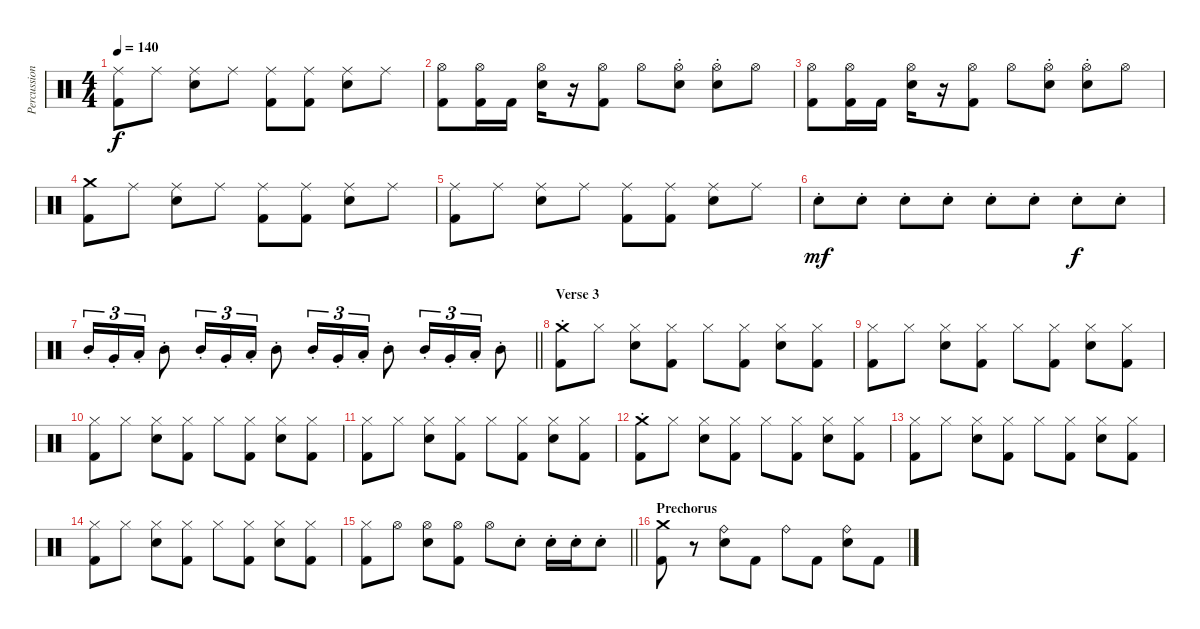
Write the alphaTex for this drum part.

\track ("Percussion" "Percussion") {instrument percussion}
\staff {score}
\articulation defaults
\ts (4 4)
\tempo 140
\clef neutral
\ks c
("Ride (middle)" "Kick (hit) 2").8{dy f} "Ride (middle)".8 ("Ride (middle)" "Snare (hit) 2").8 "Ride (middle)".8 ("Ride (middle)" "Kick (hit) 2").8 ("Ride (middle)" "Kick (hit) 2").8 ("Ride (middle)" "Snare (hit) 2").8 "Ride (middle)".8 |
("Hi-Hat (open)" "Kick (hit) 2").8 ("Hi-Hat (open)" "Kick (hit) 2").16 "Kick (hit) 2".16 ("Hi-Hat (open)" "Snare (hit) 2").16 r.16 ("Hi-Hat (open)" "Kick (hit) 2").8 "Hi-Hat (open)".8 ("Hi-Hat (open)" "Snare (hit) 2"{st}).8 ("Hi-Hat (open)" "Snare (hit) 2"{st}).8 "Hi-Hat (open)".8 |
("Hi-Hat (open)" "Kick (hit) 2").8 ("Hi-Hat (open)" "Kick (hit) 2").16 "Kick (hit) 2".16 ("Hi-Hat (open)" "Snare (hit) 2").16 r.16 ("Hi-Hat (open)" "Kick (hit) 2").8 "Hi-Hat (open)".8 ("Hi-Hat (open)" "Snare (hit) 2"{st}).8 ("Hi-Hat (open)" "Snare (hit) 2"{st}).8 "Hi-Hat (open)".8 |
("Crash medium (hit)" "Kick (hit) 2").8 "Ride (middle)".8 ("Ride (middle)" "Snare (hit) 2").8 "Ride (middle)".8 ("Ride (middle)" "Kick (hit) 2").8 ("Ride (middle)" "Kick (hit) 2").8 ("Ride (middle)" "Snare (hit) 2").8 "Ride (middle)".8 |
("Ride (middle)" "Kick (hit) 2").8 "Ride (middle)".8 ("Ride (middle)" "Snare (hit) 2").8 "Ride (middle)".8 ("Ride (middle)" "Kick (hit) 2").8 ("Ride (middle)" "Kick (hit) 2").8 ("Ride (middle)" "Snare (hit) 2").8 "Ride (middle)".8 |
"Snare (hit) 2"{st}.8{dy mf} "Snare (hit) 2"{st}.8 "Snare (hit) 2"{st}.8 "Snare (hit) 2"{st}.8 "Snare (hit) 2"{st}.8 "Snare (hit) 2"{st}.8 "Snare (hit) 2"{st}.8{dy f} "Snare (hit) 2"{st}.8 |
\barLineRight lightlight "Mid Tom (hit)"{st}.16{tu (3 2)} "Very Low Tom (hit)"{st}.16{tu (3 2)} "Low Tom (hit)"{st}.16{tu (3 2)} "Mid Tom (hit)"{st}.8 "Mid Tom (hit)"{st}.16{tu (3 2)} "Very Low Tom (hit)"{st}.16{tu (3 2)} "Low Tom (hit)"{st}.16{tu (3 2)} "Mid Tom (hit)"{st}.8 "Mid Tom (hit)"{st}.16{tu (3 2)} "Very Low Tom (hit)"{st}.16{tu (3 2)} "Low Tom (hit)"{st}.16{tu (3 2)} "Mid Tom (hit)"{st}.8 "Mid Tom (hit)"{st}.16{tu (3 2)} "Very Low Tom (hit)"{st}.16{tu (3 2)} "Low Tom (hit)"{st}.16{tu (3 2)} "Mid Tom (hit)"{st}.8
|
\section ("" "Verse 3")
("Crash medium (hit)"{st} "Kick (hit) 2").8 "Hi-Hat (closed)".8 ("Hi-Hat (closed)" "Snare (hit) 2").8 ("Hi-Hat (closed)" "Kick (hit) 2").8 "Hi-Hat (closed)".8 ("Hi-Hat (closed)" "Kick (hit) 2").8 ("Hi-Hat (closed)" "Snare (hit) 2").8 ("Hi-Hat (closed)" "Kick (hit) 2").8 |
("Hi-Hat (closed)" "Kick (hit) 2").8 "Hi-Hat (closed)".8 ("Hi-Hat (closed)" "Snare (hit) 2").8 ("Hi-Hat (closed)" "Kick (hit) 2").8 "Hi-Hat (closed)".8 ("Hi-Hat (closed)" "Kick (hit) 2").8 ("Hi-Hat (closed)" "Snare (hit) 2").8 ("Hi-Hat (closed)" "Kick (hit) 2").8 |
("Hi-Hat (closed)" "Kick (hit) 2").8 "Hi-Hat (closed)".8 ("Hi-Hat (closed)" "Snare (hit) 2").8 ("Hi-Hat (closed)" "Kick (hit) 2").8 "Hi-Hat (closed)".8 ("Hi-Hat (closed)" "Kick (hit) 2").8 ("Hi-Hat (closed)" "Snare (hit) 2").8 ("Hi-Hat (closed)" "Kick (hit) 2").8 |
("Hi-Hat (closed)" "Kick (hit) 2").8 "Hi-Hat (closed)".8 ("Hi-Hat (closed)" "Snare (hit) 2").8 ("Hi-Hat (closed)" "Kick (hit) 2").8 "Hi-Hat (closed)".8 ("Hi-Hat (closed)" "Kick (hit) 2").8 ("Hi-Hat (closed)" "Snare (hit) 2").8 ("Hi-Hat (closed)" "Kick (hit) 2").8 |
("Crash medium (hit)"{st} "Kick (hit) 2").8 "Hi-Hat (closed)".8 ("Hi-Hat (closed)" "Snare (hit) 2").8 ("Hi-Hat (closed)" "Kick (hit) 2").8 "Hi-Hat (closed)".8 ("Hi-Hat (closed)" "Kick (hit) 2").8 ("Hi-Hat (closed)" "Snare (hit) 2").8 ("Hi-Hat (closed)" "Kick (hit) 2").8 |
("Hi-Hat (closed)" "Kick (hit) 2").8 "Hi-Hat (closed)".8 ("Hi-Hat (closed)" "Snare (hit) 2").8 ("Hi-Hat (closed)" "Kick (hit) 2").8 "Hi-Hat (closed)".8 ("Hi-Hat (closed)" "Kick (hit) 2").8 ("Hi-Hat (closed)" "Snare (hit) 2").8 ("Hi-Hat (closed)" "Kick (hit) 2").8 |
("Hi-Hat (closed)" "Kick (hit) 2").8 "Hi-Hat (closed)".8 ("Hi-Hat (closed)" "Snare (hit) 2").8 ("Hi-Hat (closed)" "Kick (hit) 2").8 "Hi-Hat (closed)".8 ("Hi-Hat (closed)" "Kick (hit) 2").8 ("Hi-Hat (closed)" "Snare (hit) 2").8 ("Hi-Hat (closed)" "Kick (hit) 2").8 |
\barLineRight lightlight
("Hi-Hat (closed)" "Kick (hit) 2").8 "Hi-Hat (open)".8 ("Hi-Hat (open)" "Snare (hit) 2").8 ("Hi-Hat (open)" "Kick (hit) 2").8 "Hi-Hat (open)".8 "Snare (hit) 2"{st}.8 "Snare (hit) 2"{st}.16 "Snare (hit) 2"{st}.16 "Snare (hit) 2"{st}.8 |
\section ("" "Prechorus")
("Crash medium (hit)" "Kick (hit) 2").8 r.8 ("Ride (bell)" "Snare (hit) 2").8 "Kick (hit) 2".8 "Ride (bell)".8 "Kick (hit) 2".8 ("Ride (bell)" "Snare (hit) 2").8 "Kick (hit) 2".8
